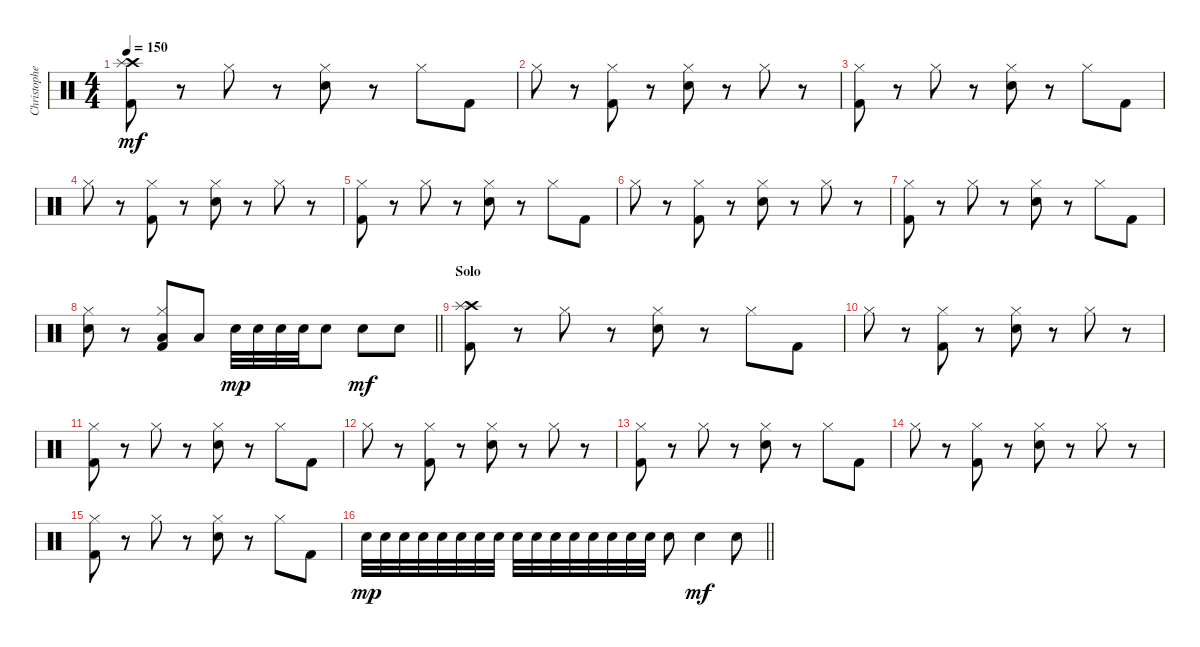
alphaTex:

\track ("Christopher" "Christophe") {instrument percussion}
\staff {score}
\articulation defaults
\ts (4 4)
\tempo 150
\clef neutral
\ks c
("Crash high (hit)" "Splash (hit)" "Kick (hit) 2").8{dy mf} r.8 "Hi-Hat (closed)".8 r.8 ("Hi-Hat (closed)" "Electric Snare (hit)").8 r.8 "Hi-Hat (closed)".8 "Kick (hit) 2".8 |
"Hi-Hat (closed)".8 r.8 ("Hi-Hat (closed)" "Kick (hit) 2").8 r.8 ("Hi-Hat (closed)" "Electric Snare (hit)").8 r.8 "Hi-Hat (closed)".8 r.8 |
("Hi-Hat (closed)" "Kick (hit) 2").8 r.8 "Hi-Hat (closed)".8 r.8 ("Hi-Hat (closed)" "Electric Snare (hit)").8 r.8 "Hi-Hat (closed)".8 "Kick (hit) 2".8 |
"Hi-Hat (closed)".8 r.8 ("Hi-Hat (closed)" "Kick (hit) 2").8 r.8 ("Hi-Hat (closed)" "Electric Snare (hit)").8 r.8 "Hi-Hat (closed)".8 r.8 |
("Hi-Hat (closed)" "Kick (hit) 2").8 r.8 "Hi-Hat (closed)".8 r.8 ("Hi-Hat (closed)" "Electric Snare (hit)").8 r.8 "Hi-Hat (closed)".8 "Kick (hit) 2".8 |
"Hi-Hat (closed)".8 r.8 ("Hi-Hat (closed)" "Kick (hit) 2").8 r.8 ("Hi-Hat (closed)" "Electric Snare (hit)").8 r.8 "Hi-Hat (closed)".8 r.8 |
("Hi-Hat (closed)" "Kick (hit) 2").8 r.8 "Hi-Hat (closed)".8 r.8 ("Hi-Hat (closed)" "Electric Snare (hit)").8 r.8 "Hi-Hat (closed)".8 "Kick (hit) 2".8 |
\barLineRight lightlight
("Hi-Hat (closed)" "Electric Snare (hit)").8 r.8 ("Hi-Hat (closed)" "Low Tom (hit)" "Kick (hit) 2").8 "Low Tom (hit)".8 "Electric Snare (hit)".32{dy mp} "Electric Snare (hit)".32 "Electric Snare (hit)".32 "Electric Snare (hit)".32 "Electric Snare (hit)".8 "Electric Snare (hit)".8{dy mf} "Electric Snare (hit)".8 |
\section ("" "Solo")
("Crash high (hit)" "Splash (hit)" "Kick (hit) 2").8 r.8 "Hi-Hat (closed)".8 r.8 ("Hi-Hat (closed)" "Electric Snare (hit)").8 r.8 "Hi-Hat (closed)".8 "Kick (hit) 2".8 |
"Hi-Hat (closed)".8 r.8 ("Hi-Hat (closed)" "Kick (hit) 2").8 r.8 ("Hi-Hat (closed)" "Electric Snare (hit)").8 r.8 "Hi-Hat (closed)".8 r.8 |
("Hi-Hat (closed)" "Kick (hit) 2").8 r.8 "Hi-Hat (closed)".8 r.8 ("Hi-Hat (closed)" "Electric Snare (hit)").8 r.8 "Hi-Hat (closed)".8 "Kick (hit) 2".8 |
"Hi-Hat (closed)".8 r.8 ("Hi-Hat (closed)" "Kick (hit) 2").8 r.8 ("Hi-Hat (closed)" "Electric Snare (hit)").8 r.8 "Hi-Hat (closed)".8 r.8 |
("Hi-Hat (closed)" "Kick (hit) 2").8 r.8 "Hi-Hat (closed)".8 r.8 ("Hi-Hat (closed)" "Electric Snare (hit)").8 r.8 "Hi-Hat (closed)".8 "Kick (hit) 2".8 |
"Hi-Hat (closed)".8 r.8 ("Hi-Hat (closed)" "Kick (hit) 2").8 r.8 ("Hi-Hat (closed)" "Electric Snare (hit)").8 r.8 "Hi-Hat (closed)".8 r.8 |
("Hi-Hat (closed)" "Kick (hit) 2").8 r.8 "Hi-Hat (closed)".8 r.8 ("Hi-Hat (closed)" "Electric Snare (hit)").8 r.8 "Hi-Hat (closed)".8 "Kick (hit) 2".8 |
\barLineRight lightlight "Electric Snare (hit)".32{dy mp} "Electric Snare (hit)".32 "Electric Snare (hit)".32 "Electric Snare (hit)".32 "Electric Snare (hit)".32 "Electric Snare (hit)".32 "Electric Snare (hit)".32 "Electric Snare (hit)".32 "Electric Snare (hit)".32 "Electric Snare (hit)".32 "Electric Snare (hit)".32 "Electric Snare (hit)".32 "Electric Snare (hit)".32 "Electric Snare (hit)".32 "Electric Snare (hit)".32 "Electric Snare (hit)".32 "Electric Snare (hit)".8 "Electric Snare (hit)".4{dy mf} "Electric Snare (hit)".8
